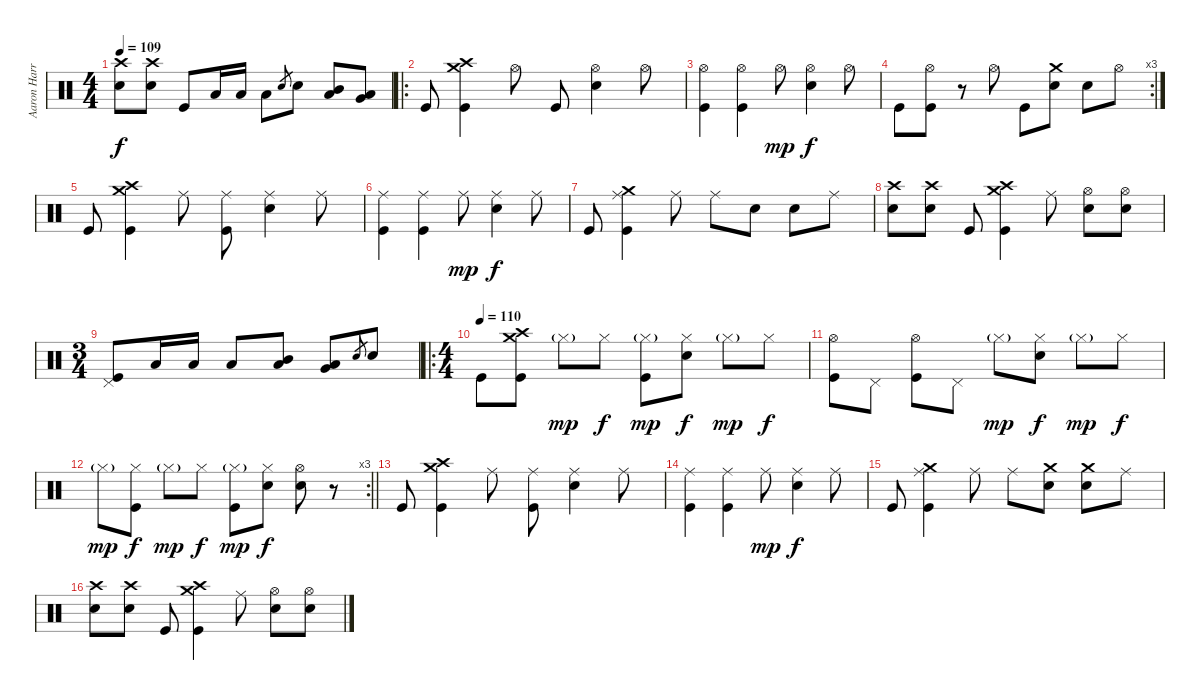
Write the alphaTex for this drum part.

\track ("Aaron Harris" "Aaron Harr") {instrument percussion}
\staff {score}
\articulation defaults
\ts (4 4)
\tempo 109
\clef neutral
\ks c
("Crash high (hit)" "Electric Snare (hit)").8{dy f} ("Crash high (hit)" "Electric Snare (hit)").8 "Kick (hit)".8 "Low Tom (hit)".16 "Low Tom (hit)".16 "Low Tom (hit)".8 "Electric Snare (hit)".8{gr} "Electric Snare (hit)".8 ("Mid Tom (hit)" "Low Tom (hit)").8 ("Low Tom (hit)" "Very Low Tom (hit)").8 |
\ro "Kick (hit)".8
("Crash medium (hit)" "Crash high (hit)" "Kick (hit)").4 "Hi-Hat (open)".8 "Kick (hit)".8 ("Hi-Hat (open)" "Electric Snare (hit)").4 "Hi-Hat (open)".8 |
("Hi-Hat (open)" "Kick (hit)").4 ("Hi-Hat (open)" "Kick (hit)").4 "Hi-Hat (open)".8{dy mp} ("Hi-Hat (open)" "Electric Snare (hit)").4{dy f} "Hi-Hat (open)".8 |
\rc 3 "Kick (hit)".8
("Hi-Hat (open)" "Kick (hit)").8 r.8 "Hi-Hat (open)".8 "Kick (hit)".8 ("Crash medium (hit)" "Electric Snare (hit)").8 "Electric Snare (hit)".8 "Hi-Hat (open)".8 |
"Kick (hit)".8 ("Crash medium (hit)" "Crash high (hit)" "Kick (hit)").4 "Ride (middle)".8 ("Ride (middle)" "Kick (hit)").8 ("Ride (middle)" "Electric Snare (hit)").4 "Ride (middle)".8 |
("Ride (middle)" "Kick (hit)").4 ("Ride (middle)" "Kick (hit)").4 "Ride (middle)".8{dy mp} ("Ride (middle)" "Electric Snare (hit)").4{dy f} "Ride (middle)".8 |
"Kick (hit)".8 ("Crash medium (hit)" "Ride (middle)" "Kick (hit)").4 "Ride (middle)".8 "Ride (middle)".8 "Electric Snare (hit)".8 "Electric Snare (hit)".8 "Ride (middle)".8 |
("Crash high (hit)" "Electric Snare (hit)").8 ("Crash high (hit)" "Electric Snare (hit)").8 "Kick (hit)".8 ("Crash medium (hit)" "Crash high (hit)" "Kick (hit)").4 "Ride (middle)".8 ("Hi-Hat (open)" "Electric Snare (hit)").8 ("Hi-Hat (open)" "Electric Snare (hit)").8 |
\ts (3 4)
("Pedal Hi-Hat (hit)" "Kick (hit)").8 "Low Tom (hit)".16 "Low Tom (hit)".16 "Low Tom (hit)".8 ("Mid Tom (hit)" "Low Tom (hit)").8 ("Low Tom (hit)" "Very Low Tom (hit)").8 "Electric Snare (hit)".8{gr} "Electric Snare (hit)".8 |
\ro
\ts (4 4)
\tempo (110)
"Kick (hit)".8 ("Crash medium (hit)" "Crash high (hit)" "Kick (hit)").8 "Hi-Hat (closed)"{g}.8{dy mp} "Hi-Hat (closed)".8{dy f} ("Hi-Hat (closed)"{g} "Kick (hit)").8{dy mp} ("Hi-Hat (closed)" "Electric Snare (hit)").8{dy f} "Hi-Hat (closed)"{g}.8{dy mp} "Hi-Hat (closed)".8{dy f} |
("Hi-Hat (open)" "Kick (hit)").8 "Pedal Hi-Hat (hit)".8 ("Hi-Hat (open)" "Kick (hit)").8 "Pedal Hi-Hat (hit)".8 "Hi-Hat (closed)"{g}.8{dy mp} ("Hi-Hat (closed)" "Electric Snare (hit)").8{dy f} "Hi-Hat (closed)"{g}.8{dy mp} "Hi-Hat (closed)".8{dy f} |
\rc 3
\barLineRight lightlight "Hi-Hat (closed)"{g}.8{dy mp}
("Hi-Hat (closed)" "Kick (hit)").8{dy f} "Hi-Hat (closed)"{g}.8{dy mp} "Hi-Hat (closed)".8{dy f} ("Hi-Hat (closed)"{g} "Kick (hit)").8{dy mp} ("Hi-Hat (closed)" "Electric Snare (hit)").8{dy f} ("Hi-Hat (open)" "Electric Snare (hit)").8 r.8 |
"Kick (hit)".8 ("Crash medium (hit)" "Crash high (hit)" "Kick (hit)").4 "Ride (middle)".8 ("Ride (middle)" "Kick (hit)").8 ("Ride (middle)" "Electric Snare (hit)").4 "Ride (middle)".8 |
("Ride (middle)" "Kick (hit)").4 ("Ride (middle)" "Kick (hit)").4 "Ride (middle)".8{dy mp} ("Ride (middle)" "Electric Snare (hit)").4{dy f} "Ride (middle)".8 |
"Kick (hit)".8 ("Crash medium (hit)" "Ride (middle)" "Kick (hit)").4 "Ride (middle)".8 "Ride (middle)".8 ("Crash medium (hit)" "Electric Snare (hit)").8 ("Crash medium (hit)" "Electric Snare (hit)").8 "Ride (middle)".8 |
("Crash high (hit)" "Electric Snare (hit)").8 ("Crash high (hit)" "Electric Snare (hit)").8 "Kick (hit)".8 ("Crash medium (hit)" "Crash high (hit)" "Kick (hit)").4 "Ride (middle)".8 ("Hi-Hat (open)" "Electric Snare (hit)").8 ("Hi-Hat (open)" "Electric Snare (hit)").8
